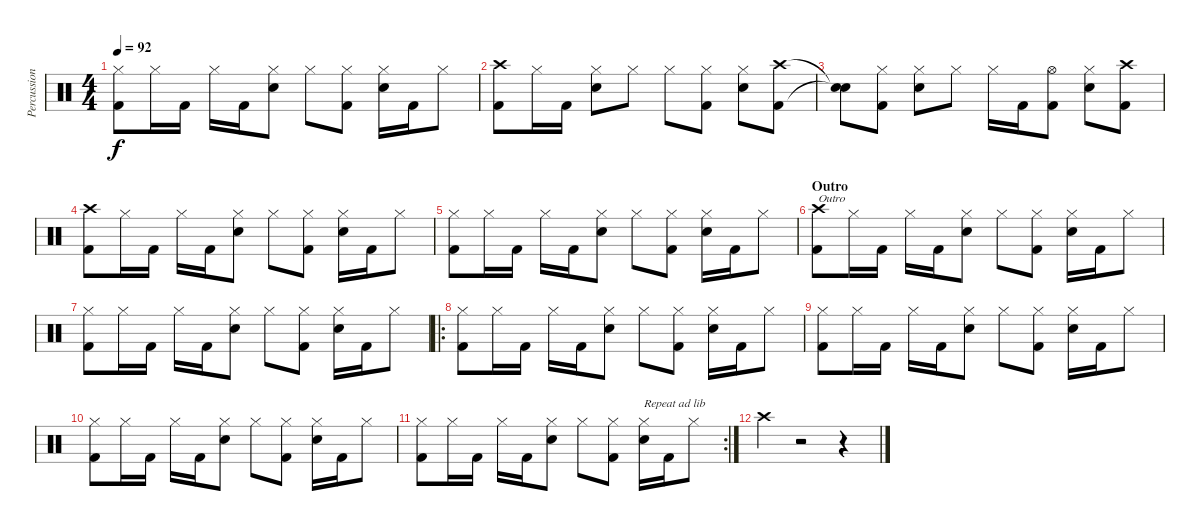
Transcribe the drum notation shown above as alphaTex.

\track ("Percussions" "Percussion") {instrument percussion}
\staff {score}
\articulation defaults
\ts (4 4)
\tempo 92
\clef neutral
\ks c
("Hi-Hat (closed)" "Kick (hit) 2").8{dy f} "Hi-Hat (closed)".16 "Kick (hit) 2".16 "Hi-Hat (closed)".16 "Kick (hit) 2".16 ("Hi-Hat (closed)" "Snare (hit) 2").8 "Hi-Hat (closed)".8 ("Hi-Hat (closed)" "Kick (hit) 2").8 ("Hi-Hat (closed)" "Snare (hit) 2").16 "Kick (hit) 2".16 "Hi-Hat (closed)".8 |
("Crash high (hit)" "Kick (hit) 2").8 "Hi-Hat (closed)".16 "Kick (hit) 2".16 ("Hi-Hat (closed)" "Snare (hit) 2").8 "Hi-Hat (closed)".8 "Hi-Hat (closed)".8 ("Hi-Hat (closed)" "Kick (hit) 2").8 ("Hi-Hat (closed)" "Snare (hit) 2").8 ("Crash high (hit)" "Kick (hit) 2").8 |
("Snare (hit)"{t} "Snare (hit)"{t}).8 ("Hi-Hat (closed)" "Kick (hit) 2").8 ("Hi-Hat (closed)" "Snare (hit) 2").8 "Hi-Hat (closed)".8 "Hi-Hat (closed)".16 "Kick (hit) 2".16 ("Hi-Hat (open)" "Kick (hit) 2").8 ("Hi-Hat (closed)" "Snare (hit) 2").8 ("Crash high (hit)" "Kick (hit) 2").8 |
("Crash high (hit)" "Kick (hit) 2").8 "Hi-Hat (closed)".16 "Kick (hit) 2".16 "Hi-Hat (closed)".16 "Kick (hit) 2".16 ("Hi-Hat (closed)" "Snare (hit) 2").8 "Hi-Hat (closed)".8 ("Hi-Hat (closed)" "Kick (hit) 2").8 ("Hi-Hat (closed)" "Snare (hit) 2").16 "Kick (hit) 2".16 "Hi-Hat (closed)".8 |
("Hi-Hat (closed)" "Kick (hit) 2").8 "Hi-Hat (closed)".16 "Kick (hit) 2".16 "Hi-Hat (closed)".16 "Kick (hit) 2".16 ("Hi-Hat (closed)" "Snare (hit) 2").8 "Hi-Hat (closed)".8 ("Hi-Hat (closed)" "Kick (hit) 2").8 ("Hi-Hat (closed)" "Snare (hit) 2").16 "Kick (hit) 2".16 "Hi-Hat (closed)".8 |
\section ("" "Outro")
("Crash high (hit)" "Kick (hit) 2").8{txt "Outro"} "Hi-Hat (closed)".16 "Kick (hit) 2".16 "Hi-Hat (closed)".16 "Kick (hit) 2".16 ("Hi-Hat (closed)" "Snare (hit) 2").8 "Hi-Hat (closed)".8 ("Hi-Hat (closed)" "Kick (hit) 2").8 ("Hi-Hat (closed)" "Snare (hit) 2").16 "Kick (hit) 2".16 "Hi-Hat (closed)".8 |
("Hi-Hat (closed)" "Kick (hit) 2").8 "Hi-Hat (closed)".16 "Kick (hit) 2".16 "Hi-Hat (closed)".16 "Kick (hit) 2".16 ("Hi-Hat (closed)" "Snare (hit) 2").8 "Hi-Hat (closed)".8 ("Hi-Hat (closed)" "Kick (hit) 2").8 ("Hi-Hat (closed)" "Snare (hit) 2").16 "Kick (hit) 2".16 "Hi-Hat (closed)".8 |
\ro
("Hi-Hat (closed)" "Kick (hit) 2").8 "Hi-Hat (closed)".16 "Kick (hit) 2".16 "Hi-Hat (closed)".16 "Kick (hit) 2".16 ("Hi-Hat (closed)" "Snare (hit) 2").8 "Hi-Hat (closed)".8 ("Hi-Hat (closed)" "Kick (hit) 2").8 ("Hi-Hat (closed)" "Snare (hit) 2").16 "Kick (hit) 2".16 "Hi-Hat (closed)".8 |
("Hi-Hat (closed)" "Kick (hit) 2").8 "Hi-Hat (closed)".16 "Kick (hit) 2".16 "Hi-Hat (closed)".16 "Kick (hit) 2".16 ("Hi-Hat (closed)" "Snare (hit) 2").8 "Hi-Hat (closed)".8 ("Hi-Hat (closed)" "Kick (hit) 2").8 ("Hi-Hat (closed)" "Snare (hit) 2").16 "Kick (hit) 2".16 "Hi-Hat (closed)".8 |
("Hi-Hat (closed)" "Kick (hit) 2").8 "Hi-Hat (closed)".16 "Kick (hit) 2".16 "Hi-Hat (closed)".16 "Kick (hit) 2".16 ("Hi-Hat (closed)" "Snare (hit) 2").8 "Hi-Hat (closed)".8 ("Hi-Hat (closed)" "Kick (hit) 2").8 ("Hi-Hat (closed)" "Snare (hit) 2").16 "Kick (hit) 2".16 "Hi-Hat (closed)".8 |
\rc 2
("Hi-Hat (closed)" "Kick (hit) 2").8 "Hi-Hat (closed)".16 "Kick (hit) 2".16 "Hi-Hat (closed)".16 "Kick (hit) 2".16 ("Hi-Hat (closed)" "Snare (hit) 2").8 "Hi-Hat (closed)".8 ("Hi-Hat (closed)" "Kick (hit) 2").8 ("Hi-Hat (closed)" "Snare (hit) 2").16{txt "Repeat ad lib"} "Kick (hit) 2".16 "Hi-Hat (closed)".8 |
"Crash high (hit)".4 r.2 r.4
